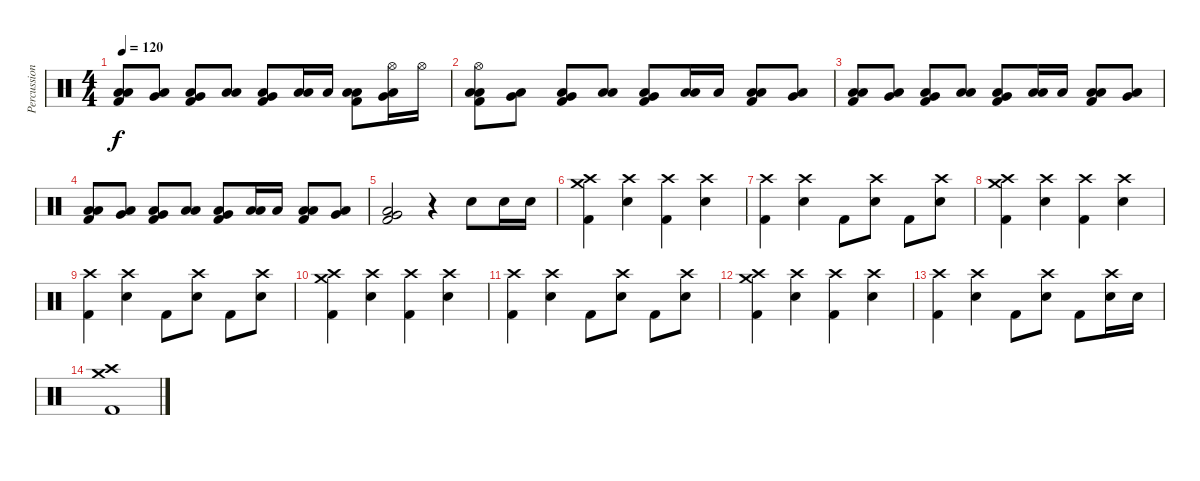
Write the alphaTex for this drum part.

\track ("Percussion" "Percussion") {instrument percussion}
\staff {score}
\articulation defaults
\ts (4 4)
\tempo 120
\clef neutral
\ks c
("Kick (hit) 2" "Low Floor Tom (hit)" "Low Tom (hit)").8{dy f} ("Low Floor Tom (hit)" "Very Low Tom (hit)").8 ("Kick (hit) 2" "Low Floor Tom (hit)" "Very Low Tom (hit)").8 ("Low Floor Tom (hit)" "Low Tom (hit)").8 ("Kick (hit) 2" "Low Floor Tom (hit)" "Very Low Tom (hit)").8 ("Low Floor Tom (hit)" "Low Tom (hit)").16 "Low Tom (hit)".16 ("Kick (hit) 2" "Low Floor Tom (hit)" "Low Tom (hit)").8 ("Low Floor Tom (hit)" "Very Low Tom (hit)" "Hi-Hat (open)").16 "Hi-Hat (open)".16 |
("Kick (hit) 2" "Low Floor Tom (hit)" "Low Tom (hit)" "Hi-Hat (open)").8 ("Low Floor Tom (hit)" "Very Low Tom (hit)").8 ("Kick (hit) 2" "Low Floor Tom (hit)" "Very Low Tom (hit)").8 ("Low Floor Tom (hit)" "Low Tom (hit)").8 ("Kick (hit) 2" "Low Floor Tom (hit)" "Very Low Tom (hit)").8 ("Low Floor Tom (hit)" "Low Tom (hit)").16 "Low Tom (hit)".16 ("Kick (hit) 2" "Low Floor Tom (hit)" "Low Tom (hit)").8 ("Low Floor Tom (hit)" "Very Low Tom (hit)").8 |
("Kick (hit) 2" "Low Floor Tom (hit)" "Low Tom (hit)").8 ("Low Floor Tom (hit)" "Very Low Tom (hit)").8 ("Kick (hit) 2" "Low Floor Tom (hit)" "Very Low Tom (hit)").8 ("Low Floor Tom (hit)" "Low Tom (hit)").8 ("Kick (hit) 2" "Low Floor Tom (hit)" "Very Low Tom (hit)").8 ("Low Floor Tom (hit)" "Low Tom (hit)").16 "Low Tom (hit)".16 ("Kick (hit) 2" "Low Floor Tom (hit)" "Low Tom (hit)").8 ("Low Floor Tom (hit)" "Very Low Tom (hit)").8 |
("Kick (hit) 2" "Low Floor Tom (hit)" "Low Tom (hit)").8 ("Low Floor Tom (hit)" "Very Low Tom (hit)").8 ("Kick (hit) 2" "Low Floor Tom (hit)" "Very Low Tom (hit)").8 ("Low Floor Tom (hit)" "Low Tom (hit)").8 ("Kick (hit) 2" "Low Floor Tom (hit)" "Very Low Tom (hit)").8 ("Low Floor Tom (hit)" "Low Tom (hit)").16 "Low Tom (hit)".16 ("Kick (hit) 2" "Low Floor Tom (hit)" "Low Tom (hit)").8 ("Low Floor Tom (hit)" "Very Low Tom (hit)").8 |
("Kick (hit) 2" "Low Floor Tom (hit)" "Very Low Tom (hit)").2 r.4 "Snare (hit) 2".8 "Snare (hit) 2".16 "Snare (hit) 2".16 |
("Kick (hit) 2" "Crash high (hit)" "Crash medium (hit)").4 ("Snare (hit) 2" "Crash high (hit)").4 ("Kick (hit) 2" "Crash high (hit)").4 ("Snare (hit) 2" "Crash high (hit)").4 |
("Kick (hit) 2" "Crash high (hit)").4 ("Snare (hit) 2" "Crash high (hit)").4 "Kick (hit) 2".8 ("Snare (hit) 2" "Crash high (hit)").8 "Kick (hit) 2".8 ("Snare (hit) 2" "Crash high (hit)").8 |
("Kick (hit) 2" "Crash high (hit)" "Crash medium (hit)").4 ("Snare (hit) 2" "Crash high (hit)").4 ("Kick (hit) 2" "Crash high (hit)").4 ("Snare (hit) 2" "Crash high (hit)").4 |
("Kick (hit) 2" "Crash high (hit)").4 ("Snare (hit) 2" "Crash high (hit)").4 "Kick (hit) 2".8 ("Snare (hit) 2" "Crash high (hit)").8 "Kick (hit) 2".8 ("Snare (hit) 2" "Crash high (hit)").8 |
("Kick (hit) 2" "Crash high (hit)" "Crash medium (hit)").4 ("Snare (hit) 2" "Crash high (hit)").4 ("Kick (hit) 2" "Crash high (hit)").4 ("Snare (hit) 2" "Crash high (hit)").4 |
("Kick (hit) 2" "Crash high (hit)").4 ("Snare (hit) 2" "Crash high (hit)").4 "Kick (hit) 2".8 ("Snare (hit) 2" "Crash high (hit)").8 "Kick (hit) 2".8 ("Snare (hit) 2" "Crash high (hit)").8 |
("Kick (hit) 2" "Crash high (hit)" "Crash medium (hit)").4 ("Snare (hit) 2" "Crash high (hit)").4 ("Kick (hit) 2" "Crash high (hit)").4 ("Snare (hit) 2" "Crash high (hit)").4 |
("Kick (hit) 2" "Crash high (hit)").4 ("Snare (hit) 2" "Crash high (hit)").4 "Kick (hit) 2".8 ("Snare (hit) 2" "Crash high (hit)").8 "Kick (hit) 2".8 ("Snare (hit) 2" "Crash high (hit)").16 "Snare (hit) 2".16 |
("Kick (hit) 2" "Crash high (hit)" "Crash medium (hit)").1
